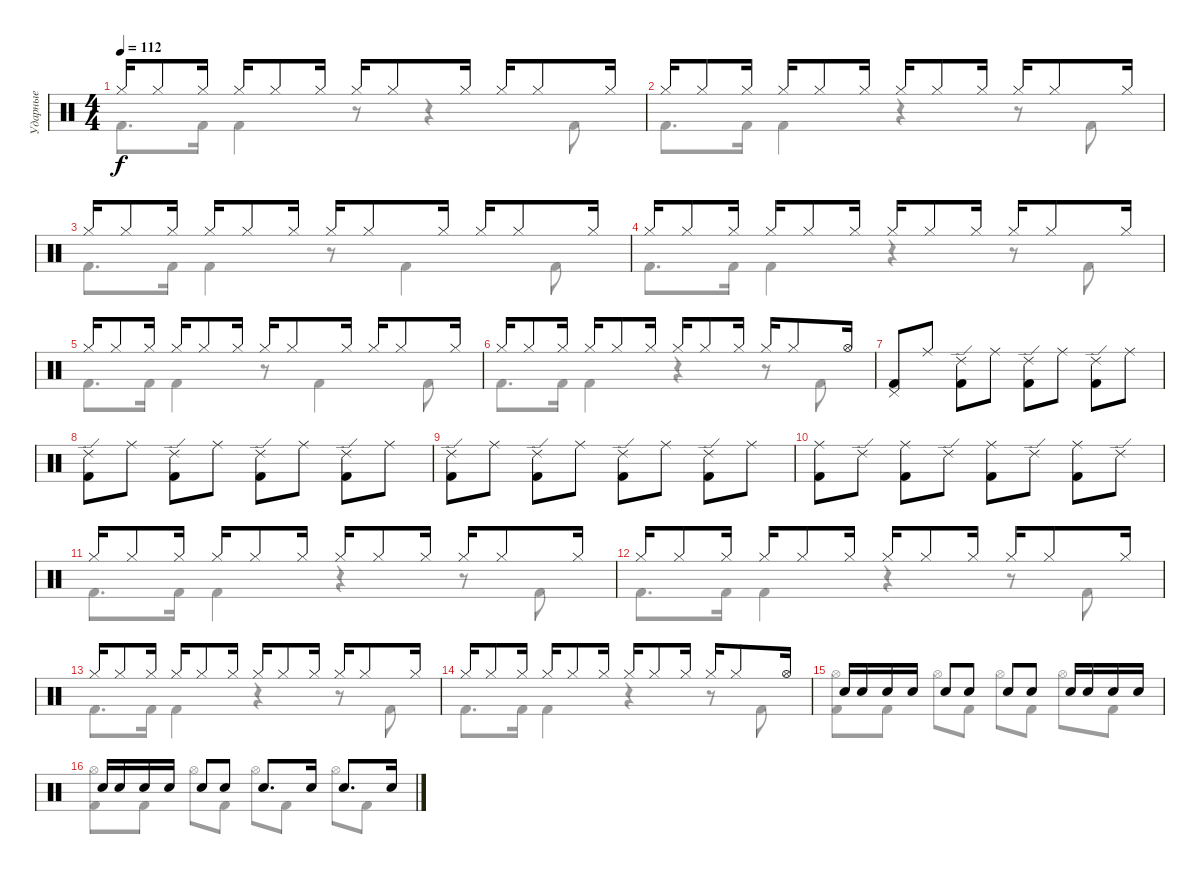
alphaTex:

\track ("Ударные" "Ударные") {instrument percussion}
\staff {score}
\articulation defaults
\voice
\ts (4 4)
\tempo 112
\clef neutral
\ks c "Hi-Hat (closed)".16{dy f} "Hi-Hat (closed)".8 "Hi-Hat (closed)".16 "Hi-Hat (closed)".16 "Hi-Hat (closed)".8 "Hi-Hat (closed)".16 "Hi-Hat (closed)".16 "Hi-Hat (closed)".8 "Hi-Hat (closed)".16 "Hi-Hat (closed)".16 "Hi-Hat (closed)".8 "Hi-Hat (closed)".16
|
"Hi-Hat (closed)".16 "Hi-Hat (closed)".8 "Hi-Hat (closed)".16 "Hi-Hat (closed)".16 "Hi-Hat (closed)".8 "Hi-Hat (closed)".16 "Hi-Hat (closed)".16 "Hi-Hat (closed)".8 "Hi-Hat (closed)".16 "Hi-Hat (closed)".16 "Hi-Hat (closed)".8 "Hi-Hat (closed)".16 |
"Hi-Hat (closed)".16 "Hi-Hat (closed)".8 "Hi-Hat (closed)".16 "Hi-Hat (closed)".16 "Hi-Hat (closed)".8 "Hi-Hat (closed)".16 "Hi-Hat (closed)".16 "Hi-Hat (closed)".8 "Hi-Hat (closed)".16 "Hi-Hat (closed)".16 "Hi-Hat (closed)".8 "Hi-Hat (closed)".16 |
"Hi-Hat (closed)".16 "Hi-Hat (closed)".8 "Hi-Hat (closed)".16 "Hi-Hat (closed)".16 "Hi-Hat (closed)".8 "Hi-Hat (closed)".16 "Hi-Hat (closed)".16 "Hi-Hat (closed)".8 "Hi-Hat (closed)".16 "Hi-Hat (closed)".16 "Hi-Hat (closed)".8 "Hi-Hat (closed)".16 |
"Hi-Hat (closed)".16 "Hi-Hat (closed)".8 "Hi-Hat (closed)".16 "Hi-Hat (closed)".16 "Hi-Hat (closed)".8 "Hi-Hat (closed)".16 "Hi-Hat (closed)".16 "Hi-Hat (closed)".8 "Hi-Hat (closed)".16 "Hi-Hat (closed)".16 "Hi-Hat (closed)".8 "Hi-Hat (closed)".16 |
"Hi-Hat (closed)".16 "Hi-Hat (closed)".8 "Hi-Hat (closed)".16 "Hi-Hat (closed)".16 "Hi-Hat (closed)".8 "Hi-Hat (closed)".16 "Hi-Hat (closed)".16 "Hi-Hat (closed)".8 "Hi-Hat (closed)".16 "Hi-Hat (closed)".16 "Hi-Hat (closed)".8 "Hi-Hat (open)".16 |
("Pedal Hi-Hat (hit)" "Kick (hit) 2").8 "Ride (middle)".8 ("Ride (edge) 2" "Kick (hit) 2").8 "Ride (middle)".8 ("Ride (edge) 2" "Kick (hit) 2").8 "Ride (middle)".8 ("Ride (edge) 2" "Kick (hit) 2").8 "Ride (middle)".8 |
("Ride (edge) 2" "Kick (hit) 2").8 "Ride (middle)".8 ("Ride (edge) 2" "Kick (hit) 2").8 "Ride (middle)".8 ("Ride (edge) 2" "Kick (hit) 2").8 "Ride (middle)".8 ("Ride (edge) 2" "Kick (hit) 2").8 "Ride (middle)".8 |
("Ride (edge) 2" "Kick (hit) 2").8 "Ride (middle)".8 ("Ride (edge) 2" "Kick (hit) 2").8 "Ride (middle)".8 ("Ride (edge) 2" "Kick (hit) 2").8 "Ride (middle)".8 ("Ride (edge) 2" "Kick (hit) 2").8 "Ride (middle)".8 |
("Ride (middle)" "Kick (hit) 2").8 "Ride (edge) 2".8 ("Ride (middle)" "Kick (hit) 2").8 "Ride (edge) 2".8 ("Ride (middle)" "Kick (hit) 2").8 "Ride (edge) 2".8 ("Ride (middle)" "Kick (hit) 2").8 "Ride (edge) 2".8 |
"Hi-Hat (closed)".16 "Hi-Hat (closed)".8 "Hi-Hat (closed)".16 "Hi-Hat (closed)".16 "Hi-Hat (closed)".8 "Hi-Hat (closed)".16 "Hi-Hat (closed)".16 "Hi-Hat (closed)".8 "Hi-Hat (closed)".16 "Hi-Hat (closed)".16 "Hi-Hat (closed)".8 "Hi-Hat (closed)".16 |
"Hi-Hat (closed)".16 "Hi-Hat (closed)".8 "Hi-Hat (closed)".16 "Hi-Hat (closed)".16 "Hi-Hat (closed)".8 "Hi-Hat (closed)".16 "Hi-Hat (closed)".16 "Hi-Hat (closed)".8 "Hi-Hat (closed)".16 "Hi-Hat (closed)".16 "Hi-Hat (closed)".8 "Hi-Hat (closed)".16 |
"Hi-Hat (closed)".16 "Hi-Hat (closed)".8 "Hi-Hat (closed)".16 "Hi-Hat (closed)".16 "Hi-Hat (closed)".8 "Hi-Hat (closed)".16 "Hi-Hat (closed)".16 "Hi-Hat (closed)".8 "Hi-Hat (closed)".16 "Hi-Hat (closed)".16 "Hi-Hat (closed)".8 "Hi-Hat (closed)".16 |
"Hi-Hat (closed)".16 "Hi-Hat (closed)".8 "Hi-Hat (closed)".16 "Hi-Hat (closed)".16 "Hi-Hat (closed)".8 "Hi-Hat (closed)".16 "Hi-Hat (closed)".16 "Hi-Hat (closed)".8 "Hi-Hat (closed)".16 "Hi-Hat (closed)".16 "Hi-Hat (closed)".8 "Hi-Hat (open)".16 |
"Snare (hit) 2".16 "Snare (hit) 2".16 "Snare (hit) 2".16 "Snare (hit) 2".16 "Snare (hit) 2".8 "Snare (hit) 2".8 "Snare (hit) 2".8 "Snare (hit) 2".8 "Snare (hit) 2".16 "Snare (hit) 2".16 "Snare (hit) 2".16 "Snare (hit) 2".16 |
"Snare (hit) 2".16 "Snare (hit) 2".16 "Snare (hit) 2".16 "Snare (hit) 2".16 "Snare (hit) 2".8 "Snare (hit) 2".8 "Snare (hit) 2".8{d} "Snare (hit) 2".16 "Snare (hit) 2".8{d} "Snare (hit) 2".16
\voice
\clef neutral
\ottava regular
\simile none
\ks c "Kick (hit) 2".8{d dy f} "Kick (hit) 2".16 "Kick (hit) 2".4
r.8 r.4 "Kick (hit) 2".8 |
"Kick (hit) 2".8{d} "Kick (hit) 2".16 "Kick (hit) 2".4 r.4 r.8 "Kick (hit) 2".8 |
"Kick (hit) 2".8{d} "Kick (hit) 2".16 "Kick (hit) 2".4 r.8 "Kick (hit) 2".4 "Kick (hit) 2".8 |
"Kick (hit) 2".8{d} "Kick (hit) 2".16 "Kick (hit) 2".4 r.4 r.8 "Kick (hit) 2".8 |
"Kick (hit) 2".8{d} "Kick (hit) 2".16 "Kick (hit) 2".4 r.8 "Kick (hit) 2".4 "Kick (hit) 2".8 |
"Kick (hit) 2".8{d} "Kick (hit) 2".16 "Kick (hit) 2".4 r.4 r.8 "Kick (hit) 2".8 |
|
|
|
|
"Kick (hit) 2".8{d} "Kick (hit) 2".16 "Kick (hit) 2".4 r.4 r.8 "Kick (hit) 2".8 |
"Kick (hit) 2".8{d} "Kick (hit) 2".16 "Kick (hit) 2".4 r.4 r.8 "Kick (hit) 2".8 |
"Kick (hit) 2".8{d} "Kick (hit) 2".16 "Kick (hit) 2".4 r.4 r.8 "Kick (hit) 2".8 |
"Kick (hit) 2".8{d} "Kick (hit) 2".16 "Kick (hit) 2".4 r.4 r.8 "Kick (hit) 2".8 |
("Kick (hit) 2" "Hi-Hat (open)").8 "Kick (hit) 2".8 "Hi-Hat (open)".8 "Kick (hit) 2".8 "Hi-Hat (open)".8 "Kick (hit) 2".8 "Hi-Hat (open)".8 "Kick (hit) 2".8 |
("Kick (hit) 2" "Hi-Hat (open)").8 "Kick (hit) 2".8 "Hi-Hat (open)".8 "Kick (hit) 2".8 "Hi-Hat (open)".8 "Kick (hit) 2".8 "Hi-Hat (open)".8 "Kick (hit) 2".8
